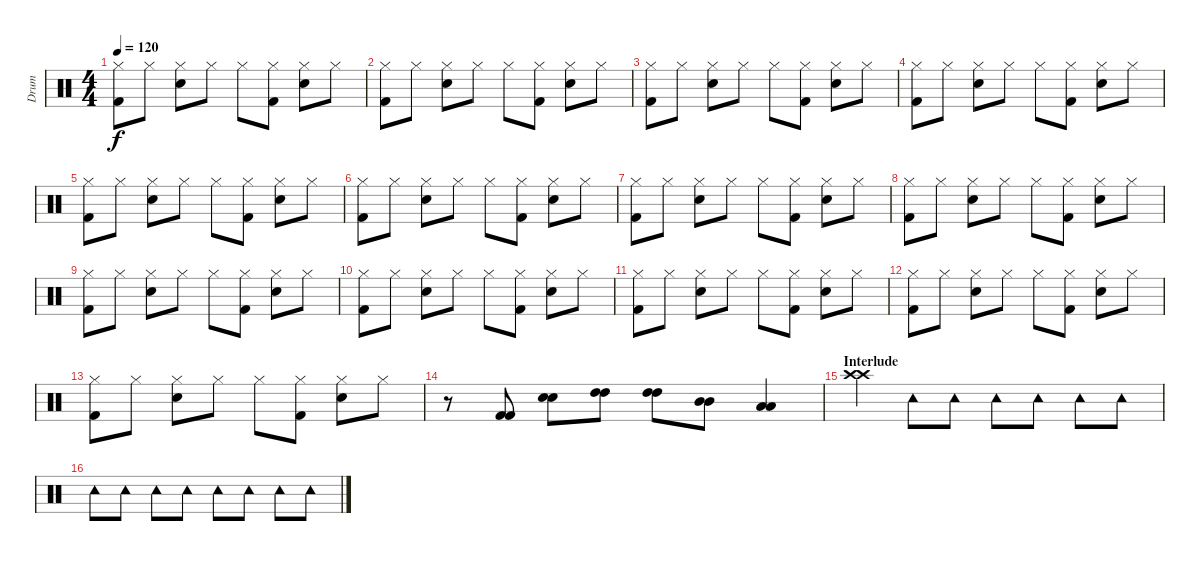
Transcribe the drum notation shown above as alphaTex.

\track ("Drum" "Drum") {instrument percussion}
\staff {score}
\articulation defaults
\ts (4 4)
\tempo 120
\clef neutral
\ks c
("Kick (hit) 2" "Hi-Hat (closed)").8{dy f} "Hi-Hat (closed)".8 ("Snare (hit) 2" "Hi-Hat (closed)").8 "Hi-Hat (closed)".8 "Hi-Hat (closed)".8 ("Kick (hit) 2" "Hi-Hat (closed)").8 ("Snare (hit) 2" "Hi-Hat (closed)").8 "Hi-Hat (closed)".8 |
("Kick (hit) 2" "Hi-Hat (closed)").8 "Hi-Hat (closed)".8 ("Snare (hit) 2" "Hi-Hat (closed)").8 "Hi-Hat (closed)".8 "Hi-Hat (closed)".8 ("Kick (hit) 2" "Hi-Hat (closed)").8 ("Snare (hit) 2" "Hi-Hat (closed)").8 "Hi-Hat (closed)".8 |
("Kick (hit) 2" "Hi-Hat (closed)").8 "Hi-Hat (closed)".8 ("Snare (hit) 2" "Hi-Hat (closed)").8 "Hi-Hat (closed)".8 "Hi-Hat (closed)".8 ("Kick (hit) 2" "Hi-Hat (closed)").8 ("Snare (hit) 2" "Hi-Hat (closed)").8 "Hi-Hat (closed)".8 |
("Kick (hit) 2" "Hi-Hat (closed)").8 "Hi-Hat (closed)".8 ("Snare (hit) 2" "Hi-Hat (closed)").8 "Hi-Hat (closed)".8 "Hi-Hat (closed)".8 ("Kick (hit) 2" "Hi-Hat (closed)").8 ("Snare (hit) 2" "Hi-Hat (closed)").8 "Hi-Hat (closed)".8 |
("Kick (hit) 2" "Hi-Hat (closed)").8 "Hi-Hat (closed)".8 ("Snare (hit) 2" "Hi-Hat (closed)").8 "Hi-Hat (closed)".8 "Hi-Hat (closed)".8 ("Kick (hit) 2" "Hi-Hat (closed)").8 ("Snare (hit) 2" "Hi-Hat (closed)").8 "Hi-Hat (closed)".8 |
("Kick (hit) 2" "Hi-Hat (closed)").8 "Hi-Hat (closed)".8 ("Snare (hit) 2" "Hi-Hat (closed)").8 "Hi-Hat (closed)".8 "Hi-Hat (closed)".8 ("Kick (hit) 2" "Hi-Hat (closed)").8 ("Snare (hit) 2" "Hi-Hat (closed)").8 "Hi-Hat (closed)".8 |
("Kick (hit) 2" "Hi-Hat (closed)").8 "Hi-Hat (closed)".8 ("Snare (hit) 2" "Hi-Hat (closed)").8 "Hi-Hat (closed)".8 "Hi-Hat (closed)".8 ("Kick (hit) 2" "Hi-Hat (closed)").8 ("Snare (hit) 2" "Hi-Hat (closed)").8 "Hi-Hat (closed)".8 |
("Kick (hit) 2" "Hi-Hat (closed)").8 "Hi-Hat (closed)".8 ("Snare (hit) 2" "Hi-Hat (closed)").8 "Hi-Hat (closed)".8 "Hi-Hat (closed)".8 ("Kick (hit) 2" "Hi-Hat (closed)").8 ("Snare (hit) 2" "Hi-Hat (closed)").8 "Hi-Hat (closed)".8 |
("Kick (hit) 2" "Hi-Hat (closed)").8 "Hi-Hat (closed)".8 ("Snare (hit) 2" "Hi-Hat (closed)").8 "Hi-Hat (closed)".8 "Hi-Hat (closed)".8 ("Kick (hit) 2" "Hi-Hat (closed)").8 ("Snare (hit) 2" "Hi-Hat (closed)").8 "Hi-Hat (closed)".8 |
("Kick (hit) 2" "Hi-Hat (closed)").8 "Hi-Hat (closed)".8 ("Snare (hit) 2" "Hi-Hat (closed)").8 "Hi-Hat (closed)".8 "Hi-Hat (closed)".8 ("Kick (hit) 2" "Hi-Hat (closed)").8 ("Snare (hit) 2" "Hi-Hat (closed)").8 "Hi-Hat (closed)".8 |
("Kick (hit) 2" "Hi-Hat (closed)").8 "Hi-Hat (closed)".8 ("Snare (hit) 2" "Hi-Hat (closed)").8 "Hi-Hat (closed)".8 "Hi-Hat (closed)".8 ("Kick (hit) 2" "Hi-Hat (closed)").8 ("Snare (hit) 2" "Hi-Hat (closed)").8 "Hi-Hat (closed)".8 |
("Kick (hit) 2" "Hi-Hat (closed)").8 "Hi-Hat (closed)".8 ("Snare (hit) 2" "Hi-Hat (closed)").8 "Hi-Hat (closed)".8 "Hi-Hat (closed)".8 ("Kick (hit) 2" "Hi-Hat (closed)").8 ("Snare (hit) 2" "Hi-Hat (closed)").8 "Hi-Hat (closed)".8 |
("Kick (hit) 2" "Hi-Hat (closed)").8 "Hi-Hat (closed)".8 ("Snare (hit) 2" "Hi-Hat (closed)").8 "Hi-Hat (closed)".8 "Hi-Hat (closed)".8 ("Kick (hit) 2" "Hi-Hat (closed)").8 ("Snare (hit) 2" "Hi-Hat (closed)").8 "Hi-Hat (closed)".8 |
r.8 ("Kick (hit) 2" "Kick (hit) 2").8 ("Snare (hit) 2" "Snare (hit) 2").8 ("High Tom (hit)" "High Tom (hit)").8 ("High Tom (hit)" "High Tom (hit)").8 ("Mid Tom (hit)" "Mid Tom (hit)").8 ("Low Floor Tom (hit)" "Low Floor Tom (hit)").4 |
\section ("" "Interlude")
("Crash high (hit)" "Crash high (hit)").4 "Tambourine (hit)".8 "Tambourine (hit)".8 "Tambourine (hit)".8 "Tambourine (hit)".8 "Tambourine (hit)".8 "Tambourine (hit)".8 |
"Tambourine (hit)".8 "Tambourine (hit)".8 "Tambourine (hit)".8 "Tambourine (hit)".8 "Tambourine (hit)".8 "Tambourine (hit)".8 "Tambourine (hit)".8 "Tambourine (hit)".8
